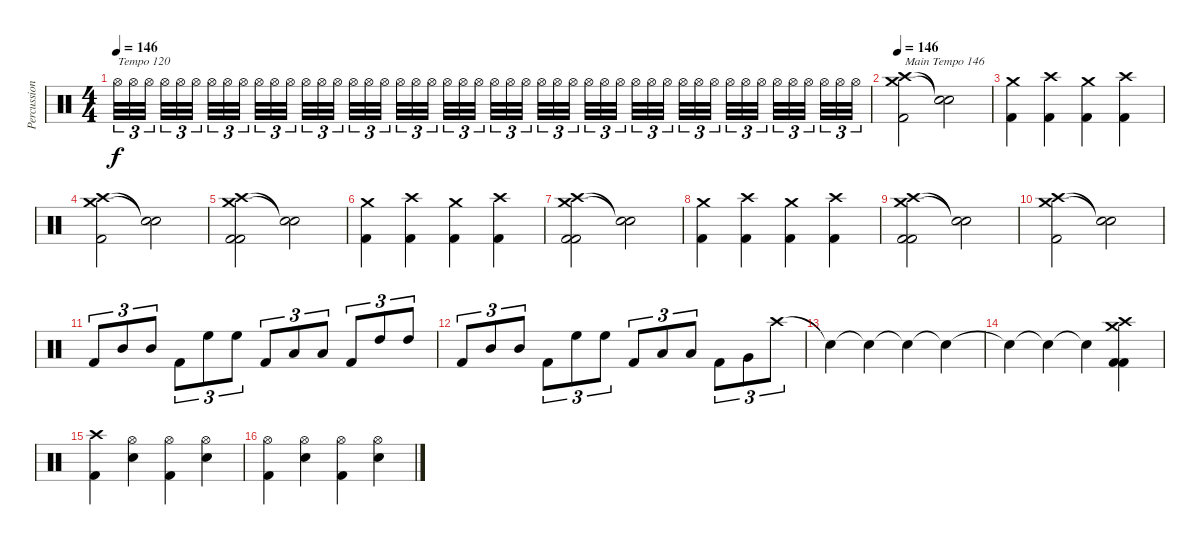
\track ("Percussion(Dr.Spock)" "Percussion") {instrument percussion}
\staff {score}
\articulation defaults
\ts (4 4)
\tempo 146
\tempo 120
\tempo 146
\clef neutral
\ks c "Hi-Hat (open)".32{tu (3 2) txt "Tempo 120" dy f volume 0} "Hi-Hat (open)".32{tu (3 2) volume 16} "Hi-Hat (open)".32{tu (3 2)} "Hi-Hat (open)".32{tu (3 2)} "Hi-Hat (open)".32{tu (3 2)} "Hi-Hat (open)".32{tu (3 2)} "Hi-Hat (open)".32{tu (3 2)} "Hi-Hat (open)".32{tu (3 2)} "Hi-Hat (open)".32{tu (3 2)} "Hi-Hat (open)".32{tu (3 2)} "Hi-Hat (open)".32{tu (3 2)} "Hi-Hat (open)".32{tu (3 2)} "Hi-Hat (open)".32{tu (3 2)} "Hi-Hat (open)".32{tu (3 2)} "Hi-Hat (open)".32{tu (3 2)} "Hi-Hat (open)".32{tu (3 2)} "Hi-Hat (open)".32{tu (3 2)} "Hi-Hat (open)".32{tu (3 2)} "Hi-Hat (open)".32{tu (3 2)} "Hi-Hat (open)".32{tu (3 2)} "Hi-Hat (open)".32{tu (3 2)} "Hi-Hat (open)".32{tu (3 2)} "Hi-Hat (open)".32{tu (3 2)} "Hi-Hat (open)".32{tu (3 2)} "Hi-Hat (open)".32{tu (3 2)} "Hi-Hat (open)".32{tu (3 2)} "Hi-Hat (open)".32{tu (3 2)} "Hi-Hat (open)".32{tu (3 2)} "Hi-Hat (open)".32{tu (3 2)} "Hi-Hat (open)".32{tu (3 2)} "Hi-Hat (open)".32{tu (3 2)} "Hi-Hat (open)".32{tu (3 2)} "Hi-Hat (open)".32{tu (3 2)} "Hi-Hat (open)".32{tu (3 2)} "Hi-Hat (open)".32{tu (3 2)} "Hi-Hat (open)".32{tu (3 2)} "Hi-Hat (open)".32{tu (3 2)} "Hi-Hat (open)".32{tu (3 2)} "Hi-Hat (open)".32{tu (3 2)} "Hi-Hat (open)".32{tu (3 2)} "Hi-Hat (open)".32{tu (3 2)} "Hi-Hat (open)".32{tu (3 2)} "Hi-Hat (open)".32{tu (3 2)} "Hi-Hat (open)".32{tu (3 2)} "Hi-Hat (open)".32{tu (3 2)} "Hi-Hat (open)".32{tu (3 2)} "Hi-Hat (open)".32{tu (3 2)} "Hi-Hat (open)".32{tu (3 2)}
|
\tempo 146
("Crash medium (hit)" "Crash high (hit)" "Kick (hit) 2").2{txt "Main Tempo 146"} ("Snare (hit)"{t} "Snare (hit)"{t}).2 |
("Crash medium (hit)" "Kick (hit) 2").4 ("Crash high (hit)" "Kick (hit) 2").4 ("Crash medium (hit)" "Kick (hit) 2").4 ("Crash high (hit)" "Kick (hit) 2").4 |
("Crash medium (hit)" "Crash high (hit)" "Kick (hit) 2").2 ("Snare (hit)"{t} "Snare (hit)"{t}).2 |
("Crash medium (hit)" "Crash high (hit)" "Kick (hit) 2" "Kick (hit) 2").2 ("Snare (hit)"{t} "Snare (hit)"{t}).2 |
("Crash medium (hit)" "Kick (hit) 2").4 ("Crash high (hit)" "Kick (hit) 2").4 ("Crash medium (hit)" "Kick (hit) 2").4 ("Crash high (hit)" "Kick (hit) 2").4 |
("Crash medium (hit)" "Crash high (hit)" "Kick (hit) 2" "Kick (hit) 2").2 ("Snare (hit)"{t} "Snare (hit)"{t}).2 |
("Crash medium (hit)" "Kick (hit) 2").4 ("Crash high (hit)" "Kick (hit) 2").4 ("Crash medium (hit)" "Kick (hit) 2").4 ("Crash high (hit)" "Kick (hit) 2").4 |
("Crash medium (hit)" "Crash high (hit)" "Kick (hit) 2" "Kick (hit) 2").2 ("Snare (hit)"{t} "Snare (hit)"{t}).2 |
("Crash medium (hit)" "Crash high (hit)" "Kick (hit) 2").2 ("Snare (hit)"{t} "Snare (hit)"{t}).2 |
"Kick (hit) 2".8{tu (3 2)} "Mid Tom (hit)".8{tu (3 2)} "Mid Tom (hit)".8{tu (3 2)} "Kick (hit) 2".8{tu (3 2)} "High Floor Tom (hit)".8{tu (3 2)} "High Floor Tom (hit)".8{tu (3 2)} "Kick (hit) 2".8{tu (3 2)} "Low Tom (hit)".8{tu (3 2)} "Low Tom (hit)".8{tu (3 2)} "Kick (hit) 2".8{tu (3 2)} "High Tom (hit)".8{tu (3 2)} "High Tom (hit)".8{tu (3 2)} |
"Kick (hit) 2".8{tu (3 2)} "Mid Tom (hit)".8{tu (3 2)} "Mid Tom (hit)".8{tu (3 2)} "Kick (hit) 2".8{tu (3 2)} "High Floor Tom (hit)".8{tu (3 2)} "High Floor Tom (hit)".8{tu (3 2)} "Kick (hit) 2".8{tu (3 2)} "Low Tom (hit)".8{tu (3 2)} "Low Tom (hit)".8{tu (3 2)} "Kick (hit) 2".8{tu (3 2)} "Very Low Tom (hit)".8{tu (3 2)} "Crash high (hit)".8{tu (3 2)} |
"Snare (hit)"{t}.4 "Snare (hit)"{t}.4 "Snare (hit)"{t}.4 "Snare (hit)"{t}.4 |
"Snare (hit)"{t}.4 "Snare (hit)"{t}.4 "Snare (hit)"{t}.4 ("Crash medium (hit)" "Crash high (hit)" "Kick (hit) 2" "Kick (hit) 2").4 |
("Crash high (hit)" "Kick (hit) 2").4 ("Hi-Hat (open)" "Snare (hit) 2").4 ("Hi-Hat (open)" "Kick (hit) 2").4 ("Hi-Hat (open)" "Snare (hit) 2").4 |
("Hi-Hat (open)" "Kick (hit) 2").4 ("Hi-Hat (open)" "Snare (hit) 2").4 ("Hi-Hat (open)" "Kick (hit) 2").4 ("Hi-Hat (open)" "Snare (hit) 2").4
